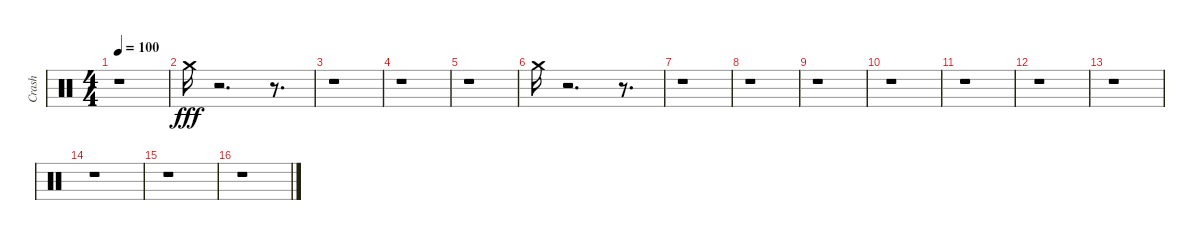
\track ("Crash" "Crash") {instrument percussion}
\staff {score}
\articulation defaults
\ts (4 4)
\tempo 100
\clef neutral
\ks c
r.1{dy fff} |
"Crash medium (hit)".16 r.2{d} r.8{d} |
r.1 |
r.1 |
r.1 |
"Crash medium (hit)".16 r.2{d} r.8{d} |
r.1 |
r.1 |
r.1 |
r.1 |
r.1 |
r.1 |
r.1 |
r.1 |
r.1 |
r.1
